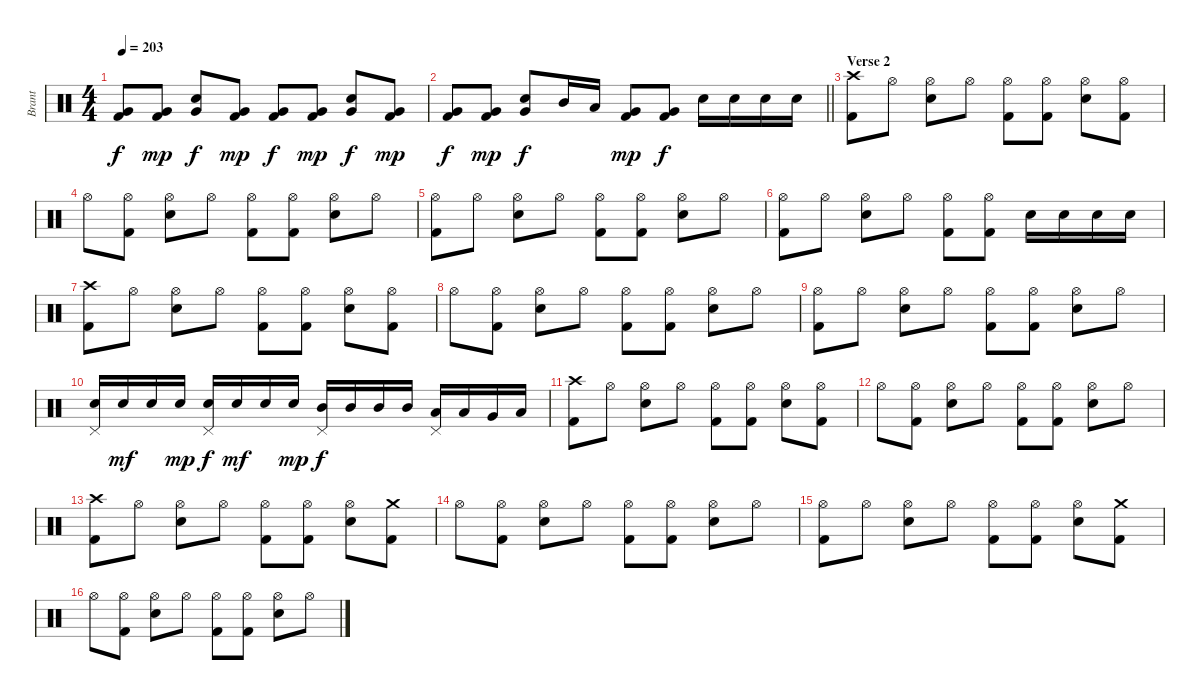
\track ("Brant" "Brant") {instrument percussion}
\staff {score}
\articulation defaults
\ts (4 4)
\tempo 203
\clef neutral
\ks c
("Very Low Tom (hit)" "Kick (hit) 2").8{dy f} ("Very Low Tom (hit)" "Kick (hit) 2").8{dy mp} ("Electric Snare (hit)" "Very Low Tom (hit)").8{dy f} ("Very Low Tom (hit)" "Kick (hit) 2").8{dy mp} ("Very Low Tom (hit)" "Kick (hit) 2").8{dy f} ("Very Low Tom (hit)" "Kick (hit) 2").8{dy mp} ("Electric Snare (hit)" "Very Low Tom (hit)").8{dy f} ("Very Low Tom (hit)" "Kick (hit) 2").8{dy mp} |
\barLineRight lightlight
("Very Low Tom (hit)" "Kick (hit) 2").8{dy f} ("Very Low Tom (hit)" "Kick (hit) 2").8{dy mp} ("Electric Snare (hit)" "Very Low Tom (hit)").8{dy f} "Mid Tom (hit)".16 "Low Tom (hit)".16 ("Very Low Tom (hit)" "Kick (hit) 2").8{dy mp} ("Very Low Tom (hit)" "Kick (hit) 2").8{dy f} "Electric Snare (hit)".16 "Electric Snare (hit)".16 "Electric Snare (hit)".16 "Electric Snare (hit)".16 |
\section ("" "Verse 2")
("Crash high (hit)" "Kick (hit) 2").8 "Hi-Hat (open)".8 ("Hi-Hat (open)" "Electric Snare (hit)").8 "Hi-Hat (open)".8 ("Hi-Hat (open)" "Kick (hit) 2").8 ("Hi-Hat (open)" "Kick (hit) 2").8 ("Hi-Hat (open)" "Electric Snare (hit)").8 ("Hi-Hat (open)" "Kick (hit) 2").8 |
"Hi-Hat (open)".8 ("Hi-Hat (open)" "Kick (hit) 2").8 ("Hi-Hat (open)" "Electric Snare (hit)").8 "Hi-Hat (open)".8 ("Hi-Hat (open)" "Kick (hit) 2").8 ("Hi-Hat (open)" "Kick (hit) 2").8 ("Hi-Hat (open)" "Electric Snare (hit)").8 "Hi-Hat (open)".8 |
("Hi-Hat (open)" "Kick (hit) 2").8 "Hi-Hat (open)".8 ("Hi-Hat (open)" "Electric Snare (hit)").8 "Hi-Hat (open)".8 ("Hi-Hat (open)" "Kick (hit) 2").8 ("Hi-Hat (open)" "Kick (hit) 2").8 ("Hi-Hat (open)" "Electric Snare (hit)").8 "Hi-Hat (open)".8 |
("Hi-Hat (open)" "Kick (hit) 2").8 "Hi-Hat (open)".8 ("Hi-Hat (open)" "Electric Snare (hit)").8 "Hi-Hat (open)".8 ("Hi-Hat (open)" "Kick (hit) 2").8 ("Hi-Hat (open)" "Kick (hit) 2").8 "Electric Snare (hit)".16 "Electric Snare (hit)".16 "Electric Snare (hit)".16 "Electric Snare (hit)".16 |
("Crash high (hit)" "Kick (hit) 2").8 "Hi-Hat (open)".8 ("Hi-Hat (open)" "Electric Snare (hit)").8 "Hi-Hat (open)".8 ("Hi-Hat (open)" "Kick (hit) 2").8 ("Hi-Hat (open)" "Kick (hit) 2").8 ("Hi-Hat (open)" "Electric Snare (hit)").8 ("Hi-Hat (open)" "Kick (hit) 2").8 |
"Hi-Hat (open)".8 ("Hi-Hat (open)" "Kick (hit) 2").8 ("Hi-Hat (open)" "Electric Snare (hit)").8 "Hi-Hat (open)".8 ("Hi-Hat (open)" "Kick (hit) 2").8 ("Hi-Hat (open)" "Kick (hit) 2").8 ("Hi-Hat (open)" "Electric Snare (hit)").8 "Hi-Hat (open)".8 |
("Hi-Hat (open)" "Kick (hit) 2").8 "Hi-Hat (open)".8 ("Hi-Hat (open)" "Electric Snare (hit)").8 "Hi-Hat (open)".8 ("Hi-Hat (open)" "Kick (hit) 2").8 ("Hi-Hat (open)" "Kick (hit) 2").8 ("Hi-Hat (open)" "Electric Snare (hit)").8 "Hi-Hat (open)".8 |
("Pedal Hi-Hat (hit)" "Electric Snare (hit)").16 "Electric Snare (hit)".16{dy mf} "Electric Snare (hit)".16 "Electric Snare (hit)".16{dy mp} ("Pedal Hi-Hat (hit)" "Electric Snare (hit)").16{dy f} "Electric Snare (hit)".16{dy mf} "Electric Snare (hit)".16 "Electric Snare (hit)".16{dy mp} ("Pedal Hi-Hat (hit)" "Mid Tom (hit)").16{dy f} "Mid Tom (hit)".16 "Mid Tom (hit)".16 "Mid Tom (hit)".16 ("Pedal Hi-Hat (hit)" "Low Tom (hit)").16 "Low Tom (hit)".16 "Very Low Tom (hit)".16 "Low Floor Tom (hit)".16 |
("Crash high (hit)" "Kick (hit) 2").8 "Hi-Hat (open)".8 ("Hi-Hat (open)" "Electric Snare (hit)").8 "Hi-Hat (open)".8 ("Hi-Hat (open)" "Kick (hit) 2").8 ("Hi-Hat (open)" "Kick (hit) 2").8 ("Hi-Hat (open)" "Electric Snare (hit)").8 ("Hi-Hat (open)" "Kick (hit) 2").8 |
"Hi-Hat (open)".8 ("Hi-Hat (open)" "Kick (hit) 2").8 ("Hi-Hat (open)" "Electric Snare (hit)").8 "Hi-Hat (open)".8 ("Hi-Hat (open)" "Kick (hit) 2").8 ("Hi-Hat (open)" "Kick (hit) 2").8 ("Hi-Hat (open)" "Electric Snare (hit)").8 "Hi-Hat (open)".8 |
("Crash high (hit)" "Kick (hit) 2").8 "Hi-Hat (open)".8 ("Hi-Hat (open)" "Electric Snare (hit)").8 "Hi-Hat (open)".8 ("Hi-Hat (open)" "Kick (hit) 2").8 ("Hi-Hat (open)" "Kick (hit) 2").8 ("Hi-Hat (open)" "Electric Snare (hit)").8 ("Crash medium (hit)" "Kick (hit) 2").8 |
"Hi-Hat (open)".8 ("Hi-Hat (open)" "Kick (hit) 2").8 ("Hi-Hat (open)" "Electric Snare (hit)").8 "Hi-Hat (open)".8 ("Hi-Hat (open)" "Kick (hit) 2").8 ("Hi-Hat (open)" "Kick (hit) 2").8 ("Hi-Hat (open)" "Electric Snare (hit)").8 "Hi-Hat (open)".8 |
("Hi-Hat (open)" "Kick (hit) 2").8 "Hi-Hat (open)".8 ("Hi-Hat (open)" "Electric Snare (hit)").8 "Hi-Hat (open)".8 ("Hi-Hat (open)" "Kick (hit) 2").8 ("Hi-Hat (open)" "Kick (hit) 2").8 ("Hi-Hat (open)" "Electric Snare (hit)").8 ("Crash medium (hit)" "Kick (hit) 2").8 |
"Hi-Hat (open)".8 ("Hi-Hat (open)" "Kick (hit) 2").8 ("Hi-Hat (open)" "Electric Snare (hit)").8 "Hi-Hat (open)".8 ("Hi-Hat (open)" "Kick (hit) 2").8 ("Hi-Hat (open)" "Kick (hit) 2").8 ("Hi-Hat (open)" "Electric Snare (hit)").8 "Hi-Hat (open)".8
